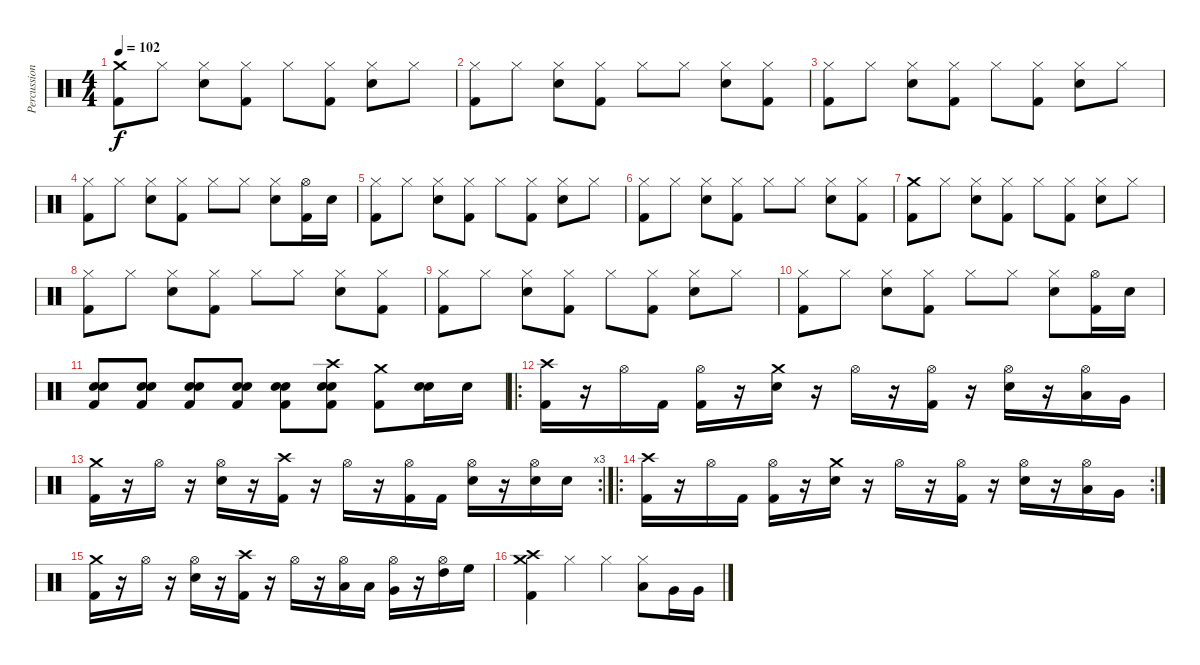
\track ("Percussion" "Percussion") {instrument percussion}
\staff {score}
\articulation defaults
\ts (4 4)
\tempo 102
\clef neutral
\ks c
("Crash medium (hit)" "Kick (hit) 2").8{dy f} "Hi-Hat (closed)".8 ("Hi-Hat (closed)" "Snare (hit) 2").8 ("Hi-Hat (closed)" "Kick (hit) 2").8 "Hi-Hat (closed)".8 ("Hi-Hat (closed)" "Kick (hit) 2").8 ("Hi-Hat (closed)" "Snare (hit) 2").8 "Hi-Hat (closed)".8 |
("Hi-Hat (closed)" "Kick (hit) 2").8 "Hi-Hat (closed)".8 ("Hi-Hat (closed)" "Snare (hit) 2").8 ("Hi-Hat (closed)" "Kick (hit) 2").8 "Hi-Hat (closed)".8 "Hi-Hat (closed)".8 ("Hi-Hat (closed)" "Snare (hit) 2").8 ("Hi-Hat (closed)" "Kick (hit) 2").8 |
("Hi-Hat (closed)" "Kick (hit) 2").8 "Hi-Hat (closed)".8 ("Hi-Hat (closed)" "Snare (hit) 2").8 ("Hi-Hat (closed)" "Kick (hit) 2").8 "Hi-Hat (closed)".8 ("Hi-Hat (closed)" "Kick (hit) 2").8 ("Hi-Hat (closed)" "Snare (hit) 2").8 "Hi-Hat (closed)".8 |
("Hi-Hat (closed)" "Kick (hit) 2").8 "Hi-Hat (closed)".8 ("Hi-Hat (closed)" "Snare (hit) 2").8 ("Hi-Hat (closed)" "Kick (hit) 2").8 "Hi-Hat (closed)".8 "Hi-Hat (closed)".8 ("Hi-Hat (closed)" "Snare (hit) 2").8 ("Hi-Hat (open)" "Kick (hit) 2").16 "Snare (hit) 2".16 |
("Hi-Hat (closed)" "Kick (hit) 2").8 "Hi-Hat (closed)".8 ("Hi-Hat (closed)" "Snare (hit) 2").8 ("Hi-Hat (closed)" "Kick (hit) 2").8 "Hi-Hat (closed)".8 ("Hi-Hat (closed)" "Kick (hit) 2").8 ("Hi-Hat (closed)" "Snare (hit) 2").8 "Hi-Hat (closed)".8 |
("Hi-Hat (closed)" "Kick (hit) 2").8 "Hi-Hat (closed)".8 ("Hi-Hat (closed)" "Snare (hit) 2").8 ("Hi-Hat (closed)" "Kick (hit) 2").8 "Hi-Hat (closed)".8 "Hi-Hat (closed)".8 ("Hi-Hat (closed)" "Snare (hit) 2").8 ("Hi-Hat (closed)" "Kick (hit) 2").8 |
("Crash medium (hit)" "Kick (hit) 2").8 "Hi-Hat (closed)".8 ("Hi-Hat (closed)" "Snare (hit) 2").8 ("Hi-Hat (closed)" "Kick (hit) 2").8 "Hi-Hat (closed)".8 ("Hi-Hat (closed)" "Kick (hit) 2").8 ("Hi-Hat (closed)" "Snare (hit) 2").8 "Hi-Hat (closed)".8 |
("Hi-Hat (closed)" "Kick (hit) 2").8 "Hi-Hat (closed)".8 ("Hi-Hat (closed)" "Snare (hit) 2").8 ("Hi-Hat (closed)" "Kick (hit) 2").8 "Hi-Hat (closed)".8 "Hi-Hat (closed)".8 ("Hi-Hat (closed)" "Snare (hit) 2").8 ("Hi-Hat (closed)" "Kick (hit) 2").8 |
("Hi-Hat (closed)" "Kick (hit) 2").8 "Hi-Hat (closed)".8 ("Hi-Hat (closed)" "Snare (hit) 2").8 ("Hi-Hat (closed)" "Kick (hit) 2").8 "Hi-Hat (closed)".8 ("Hi-Hat (closed)" "Kick (hit) 2").8 ("Hi-Hat (closed)" "Snare (hit) 2").8 "Hi-Hat (closed)".8 |
("Hi-Hat (closed)" "Kick (hit) 2").8 "Hi-Hat (closed)".8 ("Hi-Hat (closed)" "Snare (hit) 2").8 ("Hi-Hat (closed)" "Kick (hit) 2").8 "Hi-Hat (closed)".8 "Hi-Hat (closed)".8 ("Hi-Hat (closed)" "Snare (hit) 2").8 ("Hi-Hat (open)" "Kick (hit) 2").16 "Snare (hit) 2".16 |
("Snare (hit) 2" "Snare (hit) 2" "Kick (hit) 2").8 ("Snare (hit) 2" "Snare (hit) 2" "Kick (hit) 2").8 ("Snare (hit) 2" "Snare (hit) 2" "Kick (hit) 2").8 ("Snare (hit) 2" "Snare (hit) 2" "Kick (hit) 2").8 ("Snare (hit) 2" "Snare (hit) 2" "Kick (hit) 2").8 ("Crash high (hit)" "Snare (hit) 2" "Snare (hit) 2" "Kick (hit) 2").8 ("Crash medium (hit)" "Kick (hit) 2").8 ("Snare (hit) 2" "Snare (hit) 2").16 "Snare (hit) 2".16 |
\ro
("Crash high (hit)" "Kick (hit) 2").16 r.16 "Hi-Hat (open)".16 "Kick (hit) 2".16 ("Hi-Hat (open)" "Kick (hit) 2").16 r.16 ("Crash medium (hit)" "Snare (hit) 2").16 r.16 "Hi-Hat (open)".16 r.16 ("Hi-Hat (open)" "Kick (hit) 2").16 r.16 ("Hi-Hat (open)" "Snare (hit) 2").16 r.16 ("Hi-Hat (open)" "Low Tom (hit)").16 "Very Low Tom (hit)".16 |
\rc 3
("Crash medium (hit)" "Kick (hit) 2").16 r.16 "Hi-Hat (open)".16 r.16 ("Hi-Hat (open)" "Snare (hit) 2").16 r.16 ("Crash high (hit)" "Kick (hit) 2").16 r.16 "Hi-Hat (open)".16 r.16 ("Hi-Hat (open)" "Kick (hit) 2").16 "Kick (hit) 2".16 ("Hi-Hat (open)" "Snare (hit) 2").16 r.16 ("Hi-Hat (open)" "Snare (hit) 2").16 "Snare (hit) 2".16 |
\ro
\rc 2
("Crash high (hit)" "Kick (hit) 2").16 r.16 "Hi-Hat (open)".16 "Kick (hit) 2".16 ("Hi-Hat (open)" "Kick (hit) 2").16 r.16 ("Crash medium (hit)" "Snare (hit) 2").16 r.16 "Hi-Hat (open)".16 r.16 ("Hi-Hat (open)" "Kick (hit) 2").16 r.16 ("Hi-Hat (open)" "Snare (hit) 2").16 r.16 ("Hi-Hat (open)" "Low Tom (hit)").16 "Very Low Tom (hit)".16 |
("Crash medium (hit)" "Kick (hit) 2").16 r.16 "Hi-Hat (open)".16 r.16 ("Hi-Hat (open)" "Snare (hit) 2").16 r.16 ("Crash high (hit)" "Kick (hit) 2").16 r.16 "Hi-Hat (open)".16 r.16 ("Hi-Hat (open)" "Low Tom (hit)").16 "Low Tom (hit)".16 ("Hi-Hat (open)" "Very Low Tom (hit)").16 r.16 ("Hi-Hat (open)" "High Tom (hit)").16 "High Floor Tom (hit)".16 |
("Crash high (hit)" "Crash medium (hit)" "Kick (hit) 2").4 "Hi-Hat (closed)".4 "Hi-Hat (closed)".4 ("Hi-Hat (closed)" "Low Tom (hit)").8 "Very Low Tom (hit)".16 "Very Low Tom (hit)".16
